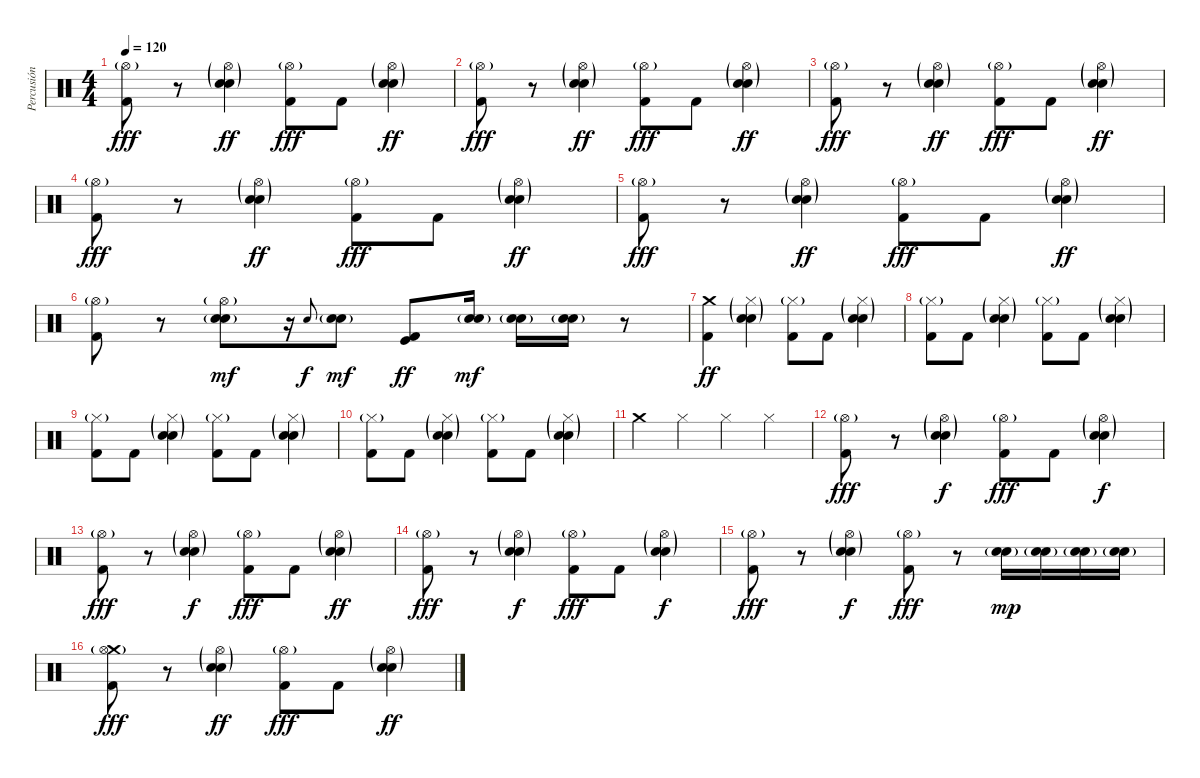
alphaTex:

\track ("Percusión" "Percusión") {instrument percussion}
\staff {score}
\articulation defaults
\ts (4 4)
\tempo 120
\clef neutral
\ks c
("Hi-Hat (open)"{g} "Kick (hit) 2").8{dy fff} r.8 ("Hi-Hat (open)"{g} "Electric Snare (hit)"{g} "Snare (hit) 2").4{dy ff} ("Hi-Hat (open)"{g} "Kick (hit) 2").8{dy fff} "Kick (hit) 2".8 ("Hi-Hat (open)"{g} "Electric Snare (hit)"{g} "Snare (hit) 2").4{dy ff} |
("Hi-Hat (open)"{g} "Kick (hit) 2").8{dy fff} r.8 ("Hi-Hat (open)"{g} "Electric Snare (hit)"{g} "Snare (hit) 2").4{dy ff} ("Hi-Hat (open)"{g} "Kick (hit) 2").8{dy fff} "Kick (hit) 2".8 ("Hi-Hat (open)"{g} "Electric Snare (hit)"{g} "Snare (hit) 2").4{dy ff} |
("Hi-Hat (open)"{g} "Kick (hit) 2").8{dy fff} r.8 ("Hi-Hat (open)"{g} "Electric Snare (hit)"{g} "Snare (hit) 2").4{dy ff} ("Hi-Hat (open)"{g} "Kick (hit) 2").8{dy fff} "Kick (hit) 2".8 ("Hi-Hat (open)"{g} "Electric Snare (hit)"{g} "Snare (hit) 2").4{dy ff} |
("Hi-Hat (open)"{g} "Kick (hit) 2").8{dy fff} r.8 ("Hi-Hat (open)"{g} "Electric Snare (hit)"{g} "Snare (hit) 2").4{dy ff} ("Hi-Hat (open)"{g} "Kick (hit) 2").8{dy fff} "Kick (hit) 2".8 ("Hi-Hat (open)"{g} "Electric Snare (hit)"{g} "Snare (hit) 2").4{dy ff} |
("Hi-Hat (open)"{g} "Kick (hit) 2").8{dy fff} r.8 ("Hi-Hat (open)"{g} "Electric Snare (hit)"{g} "Snare (hit) 2").4{dy ff} ("Hi-Hat (open)"{g} "Kick (hit) 2").8{dy fff} "Kick (hit) 2".8 ("Hi-Hat (open)"{g} "Electric Snare (hit)"{g} "Snare (hit) 2").4{dy ff} |
("Hi-Hat (open)"{g} "Kick (hit) 2").8 r.8 ("Hi-Hat (open)"{g} "Snare (hit) 2" "Electric Snare (hit)"{g}).8{dy mf} r.16 "Snare (hit) 2".8{gr onbeat dy f} ("Snare (hit) 2" "Electric Snare (hit)"{g}).8{dy mf} ("Kick (hit)" "Kick (hit) 2").8{dy ff} ("Snare (hit) 2" "Electric Snare (hit)"{g}).16{dy mf} ("Snare (hit) 2" "Electric Snare (hit)"{g}).16 ("Snare (hit) 2" "Electric Snare (hit)"{g}).16 r.8 |
("Crash medium (hit)" "Kick (hit) 2").4{dy ff} ("Hi-Hat (closed)"{g} "Electric Snare (hit)"{g} "Snare (hit) 2").4 ("Hi-Hat (closed)"{g} "Kick (hit) 2").8 "Kick (hit) 2".8 ("Hi-Hat (closed)"{g} "Electric Snare (hit)"{g} "Snare (hit) 2").4 |
("Hi-Hat (closed)"{g} "Kick (hit) 2").8 "Kick (hit) 2".8 ("Hi-Hat (closed)"{g} "Electric Snare (hit)"{g} "Snare (hit) 2").4 ("Hi-Hat (closed)"{g} "Kick (hit) 2").8 "Kick (hit) 2".8 ("Hi-Hat (closed)"{g} "Electric Snare (hit)"{g} "Snare (hit) 2").4 |
("Hi-Hat (closed)"{g} "Kick (hit) 2").8 "Kick (hit) 2".8 ("Hi-Hat (closed)"{g} "Electric Snare (hit)"{g} "Snare (hit) 2").4 ("Hi-Hat (closed)"{g} "Kick (hit) 2").8 "Kick (hit) 2".8 ("Hi-Hat (closed)"{g} "Electric Snare (hit)"{g} "Snare (hit) 2").4 |
("Hi-Hat (closed)"{g} "Kick (hit) 2").8 "Kick (hit) 2".8 ("Hi-Hat (closed)"{g} "Electric Snare (hit)"{g} "Snare (hit) 2").4 ("Hi-Hat (closed)"{g} "Kick (hit) 2").8 "Kick (hit) 2".8 ("Hi-Hat (closed)"{g} "Electric Snare (hit)"{g} "Snare (hit) 2").4 |
"Crash medium (hit)".4 "Hi-Hat (closed)".4 "Hi-Hat (closed)".4 "Hi-Hat (closed)".4 |
("Hi-Hat (open)"{g} "Kick (hit) 2").8{dy fff} r.8 ("Hi-Hat (open)"{g} "Electric Snare (hit)"{g} "Snare (hit) 2").4{dy f} ("Hi-Hat (open)"{g} "Kick (hit) 2").8{dy fff} "Kick (hit) 2".8 ("Hi-Hat (open)"{g} "Electric Snare (hit)"{g} "Snare (hit) 2").4{dy f} |
("Hi-Hat (open)"{g} "Kick (hit) 2").8{dy fff} r.8 ("Hi-Hat (open)"{g} "Electric Snare (hit)"{g} "Snare (hit) 2").4{dy f} ("Hi-Hat (open)"{g} "Kick (hit) 2").8{dy fff} "Kick (hit) 2".8 ("Hi-Hat (open)"{g} "Electric Snare (hit)"{g} "Snare (hit) 2").4{dy ff} |
("Hi-Hat (open)"{g} "Kick (hit) 2").8{dy fff} r.8 ("Hi-Hat (open)"{g} "Electric Snare (hit)"{g} "Snare (hit) 2").4{dy f} ("Hi-Hat (open)"{g} "Kick (hit) 2").8{dy fff} "Kick (hit) 2".8 ("Hi-Hat (open)"{g} "Electric Snare (hit)"{g} "Snare (hit) 2").4{dy f} |
("Hi-Hat (open)"{g} "Kick (hit) 2").8{dy fff} r.8 ("Hi-Hat (open)"{g} "Electric Snare (hit)"{g} "Snare (hit) 2").4{dy f} ("Hi-Hat (open)"{g} "Kick (hit) 2").8{dy fff} r.8 ("Snare (hit) 2" "Electric Snare (hit)"{g}).16{dy mp} ("Snare (hit) 2" "Electric Snare (hit)"{g}).16 ("Snare (hit) 2" "Electric Snare (hit)"{g}).16 ("Snare (hit) 2" "Electric Snare (hit)"{g}).16 |
("Crash medium (hit)" "Hi-Hat (open)"{g} "Kick (hit) 2").8{dy fff} r.8 ("Hi-Hat (open)"{g} "Electric Snare (hit)"{g} "Snare (hit) 2").4{dy ff} ("Hi-Hat (open)"{g} "Kick (hit) 2").8{dy fff} "Kick (hit) 2".8 ("Hi-Hat (open)"{g} "Electric Snare (hit)"{g} "Snare (hit) 2").4{dy ff}
